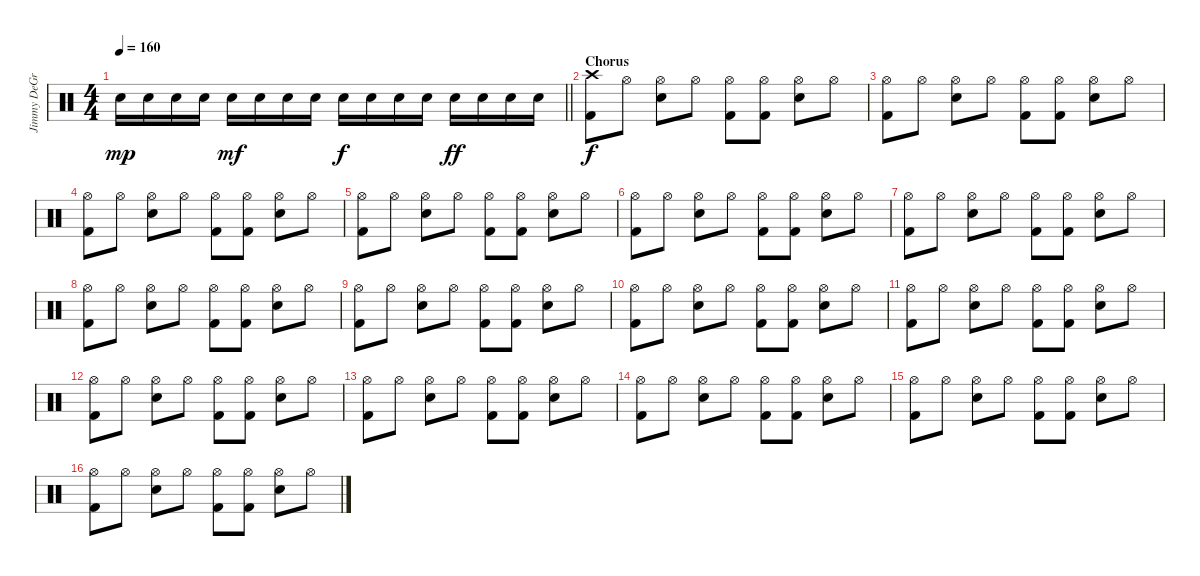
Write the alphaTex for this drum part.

\track ("Jimmy DeGrasso" "Jimmy DeGr") {instrument percussion}
\staff {score}
\articulation defaults
\ts (4 4)
\tempo 160
\clef neutral
\barLineRight lightlight
\ks c "Snare (hit) 2".16{dy mp} "Snare (hit) 2".16 "Snare (hit) 2".16 "Snare (hit) 2".16 "Snare (hit) 2".16{dy mf} "Snare (hit) 2".16 "Snare (hit) 2".16 "Snare (hit) 2".16 "Snare (hit) 2".16{dy f} "Snare (hit) 2".16 "Snare (hit) 2".16 "Snare (hit) 2".16 "Snare (hit) 2".16{dy ff} "Snare (hit) 2".16 "Snare (hit) 2".16 "Snare (hit) 2".16
|
\section ("" "Chorus")
("Crash high (hit)" "Kick (hit) 2").8{dy f} "Hi-Hat (open)".8 ("Hi-Hat (open)" "Snare (hit) 2").8 "Hi-Hat (open)".8 ("Hi-Hat (open)" "Kick (hit) 2").8 ("Hi-Hat (open)" "Kick (hit) 2").8 ("Hi-Hat (open)" "Snare (hit) 2").8 "Hi-Hat (open)".8 |
("Hi-Hat (open)" "Kick (hit) 2").8 "Hi-Hat (open)".8 ("Hi-Hat (open)" "Snare (hit) 2").8 "Hi-Hat (open)".8 ("Hi-Hat (open)" "Kick (hit) 2").8 ("Hi-Hat (open)" "Kick (hit) 2").8 ("Hi-Hat (open)" "Snare (hit) 2").8 "Hi-Hat (open)".8 |
("Hi-Hat (open)" "Kick (hit) 2").8 "Hi-Hat (open)".8 ("Hi-Hat (open)" "Snare (hit) 2").8 "Hi-Hat (open)".8 ("Hi-Hat (open)" "Kick (hit) 2").8 ("Hi-Hat (open)" "Kick (hit) 2").8 ("Hi-Hat (open)" "Snare (hit) 2").8 "Hi-Hat (open)".8 |
("Hi-Hat (open)" "Kick (hit) 2").8 "Hi-Hat (open)".8 ("Hi-Hat (open)" "Snare (hit) 2").8 "Hi-Hat (open)".8 ("Hi-Hat (open)" "Kick (hit) 2").8 ("Hi-Hat (open)" "Kick (hit) 2").8 ("Hi-Hat (open)" "Snare (hit) 2").8 "Hi-Hat (open)".8 |
("Hi-Hat (open)" "Kick (hit) 2").8 "Hi-Hat (open)".8 ("Hi-Hat (open)" "Snare (hit) 2").8 "Hi-Hat (open)".8 ("Hi-Hat (open)" "Kick (hit) 2").8 ("Hi-Hat (open)" "Kick (hit) 2").8 ("Hi-Hat (open)" "Snare (hit) 2").8 "Hi-Hat (open)".8 |
("Hi-Hat (open)" "Kick (hit) 2").8 "Hi-Hat (open)".8 ("Hi-Hat (open)" "Snare (hit) 2").8 "Hi-Hat (open)".8 ("Hi-Hat (open)" "Kick (hit) 2").8 ("Hi-Hat (open)" "Kick (hit) 2").8 ("Hi-Hat (open)" "Snare (hit) 2").8 "Hi-Hat (open)".8 |
("Hi-Hat (open)" "Kick (hit) 2").8 "Hi-Hat (open)".8 ("Hi-Hat (open)" "Snare (hit) 2").8 "Hi-Hat (open)".8 ("Hi-Hat (open)" "Kick (hit) 2").8 ("Hi-Hat (open)" "Kick (hit) 2").8 ("Hi-Hat (open)" "Snare (hit) 2").8 "Hi-Hat (open)".8 |
("Hi-Hat (open)" "Kick (hit) 2").8 "Hi-Hat (open)".8 ("Hi-Hat (open)" "Snare (hit) 2").8 "Hi-Hat (open)".8 ("Hi-Hat (open)" "Kick (hit) 2").8 ("Hi-Hat (open)" "Kick (hit) 2").8 ("Hi-Hat (open)" "Snare (hit) 2").8 "Hi-Hat (open)".8 |
("Hi-Hat (open)" "Kick (hit) 2").8 "Hi-Hat (open)".8 ("Hi-Hat (open)" "Snare (hit) 2").8 "Hi-Hat (open)".8 ("Hi-Hat (open)" "Kick (hit) 2").8 ("Hi-Hat (open)" "Kick (hit) 2").8 ("Hi-Hat (open)" "Snare (hit) 2").8 "Hi-Hat (open)".8 |
("Hi-Hat (open)" "Kick (hit) 2").8 "Hi-Hat (open)".8 ("Hi-Hat (open)" "Snare (hit) 2").8 "Hi-Hat (open)".8 ("Hi-Hat (open)" "Kick (hit) 2").8 ("Hi-Hat (open)" "Kick (hit) 2").8 ("Hi-Hat (open)" "Snare (hit) 2").8 "Hi-Hat (open)".8 |
("Hi-Hat (open)" "Kick (hit) 2").8 "Hi-Hat (open)".8 ("Hi-Hat (open)" "Snare (hit) 2").8 "Hi-Hat (open)".8 ("Hi-Hat (open)" "Kick (hit) 2").8 ("Hi-Hat (open)" "Kick (hit) 2").8 ("Hi-Hat (open)" "Snare (hit) 2").8 "Hi-Hat (open)".8 |
("Hi-Hat (open)" "Kick (hit) 2").8 "Hi-Hat (open)".8 ("Hi-Hat (open)" "Snare (hit) 2").8 "Hi-Hat (open)".8 ("Hi-Hat (open)" "Kick (hit) 2").8 ("Hi-Hat (open)" "Kick (hit) 2").8 ("Hi-Hat (open)" "Snare (hit) 2").8 "Hi-Hat (open)".8 |
("Hi-Hat (open)" "Kick (hit) 2").8 "Hi-Hat (open)".8 ("Hi-Hat (open)" "Snare (hit) 2").8 "Hi-Hat (open)".8 ("Hi-Hat (open)" "Kick (hit) 2").8 ("Hi-Hat (open)" "Kick (hit) 2").8 ("Hi-Hat (open)" "Snare (hit) 2").8 "Hi-Hat (open)".8 |
("Hi-Hat (open)" "Kick (hit) 2").8 "Hi-Hat (open)".8 ("Hi-Hat (open)" "Snare (hit) 2").8 "Hi-Hat (open)".8 ("Hi-Hat (open)" "Kick (hit) 2").8 ("Hi-Hat (open)" "Kick (hit) 2").8 ("Hi-Hat (open)" "Snare (hit) 2").8 "Hi-Hat (open)".8 |
("Hi-Hat (open)" "Kick (hit) 2").8 "Hi-Hat (open)".8 ("Hi-Hat (open)" "Snare (hit) 2").8 "Hi-Hat (open)".8 ("Hi-Hat (open)" "Kick (hit) 2").8 ("Hi-Hat (open)" "Kick (hit) 2").8 ("Hi-Hat (open)" "Snare (hit) 2").8 "Hi-Hat (open)".8
